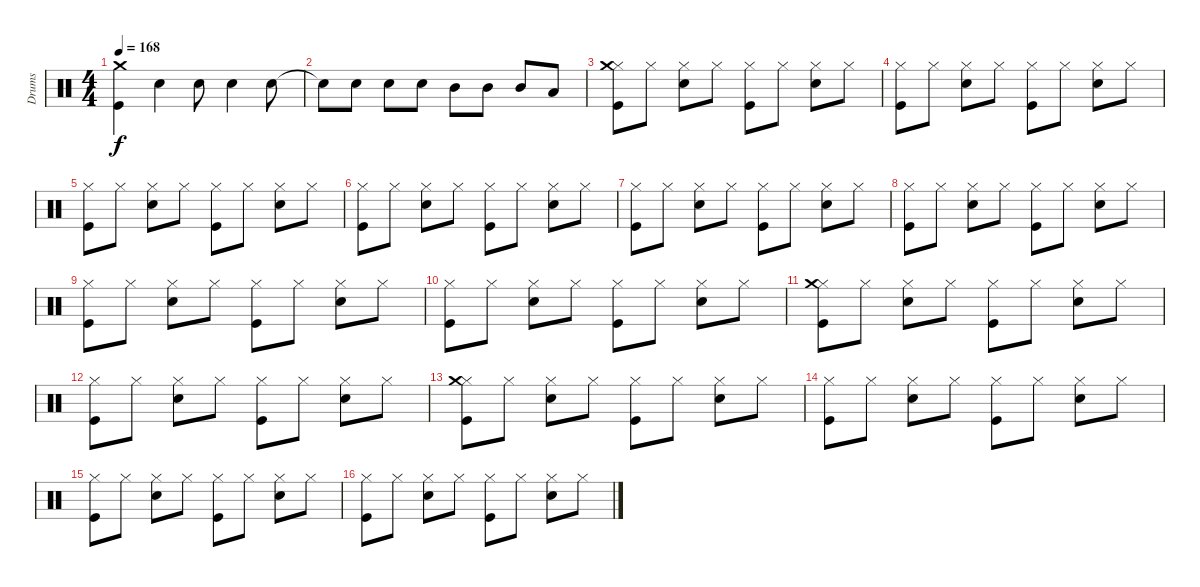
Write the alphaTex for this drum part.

\track ("Drums" "Drums") {instrument percussion}
\staff {score}
\articulation defaults
\ts (4 4)
\tempo 168
\clef neutral
\ks c
("Kick (hit)" "Crash medium (hit)").4{dy f} "Snare (hit) 2".4 "Snare (hit) 2".8 "Snare (hit) 2".4 "Snare (hit) 2".8 |
"Snare (hit)"{t}.8 "Snare (hit) 2".8 "Snare (hit) 2".8 "Snare (hit) 2".8 "Mid Tom (hit)".8 "Mid Tom (hit)".8 "Mid Tom (hit)".8 "Low Floor Tom (hit)".8 |
("Kick (hit)" "Hi-Hat (closed)" "Crash medium (hit)").8 "Hi-Hat (closed)".8 ("Snare (hit) 2" "Hi-Hat (closed)").8 "Hi-Hat (closed)".8 ("Kick (hit)" "Hi-Hat (closed)").8 "Hi-Hat (closed)".8 ("Snare (hit) 2" "Hi-Hat (closed)").8 "Hi-Hat (closed)".8 |
("Kick (hit)" "Hi-Hat (closed)").8 "Hi-Hat (closed)".8 ("Snare (hit) 2" "Hi-Hat (closed)").8 "Hi-Hat (closed)".8 ("Kick (hit)" "Hi-Hat (closed)").8 "Hi-Hat (closed)".8 ("Snare (hit) 2" "Hi-Hat (closed)").8 "Hi-Hat (closed)".8 |
("Kick (hit)" "Hi-Hat (closed)").8 "Hi-Hat (closed)".8 ("Snare (hit) 2" "Hi-Hat (closed)").8 "Hi-Hat (closed)".8 ("Kick (hit)" "Hi-Hat (closed)").8 "Hi-Hat (closed)".8 ("Snare (hit) 2" "Hi-Hat (closed)").8 "Hi-Hat (closed)".8 |
("Kick (hit)" "Hi-Hat (closed)").8 "Hi-Hat (closed)".8 ("Snare (hit) 2" "Hi-Hat (closed)").8 "Hi-Hat (closed)".8 ("Kick (hit)" "Hi-Hat (closed)").8 "Hi-Hat (closed)".8 ("Snare (hit) 2" "Hi-Hat (closed)").8 "Hi-Hat (closed)".8 |
("Kick (hit)" "Hi-Hat (closed)").8 "Hi-Hat (closed)".8 ("Snare (hit) 2" "Hi-Hat (closed)").8 "Hi-Hat (closed)".8 ("Kick (hit)" "Hi-Hat (closed)").8 "Hi-Hat (closed)".8 ("Snare (hit) 2" "Hi-Hat (closed)").8 "Hi-Hat (closed)".8 |
("Kick (hit)" "Hi-Hat (closed)").8 "Hi-Hat (closed)".8 ("Snare (hit) 2" "Hi-Hat (closed)").8 "Hi-Hat (closed)".8 ("Kick (hit)" "Hi-Hat (closed)").8 "Hi-Hat (closed)".8 ("Snare (hit) 2" "Hi-Hat (closed)").8 "Hi-Hat (closed)".8 |
("Kick (hit)" "Hi-Hat (closed)").8 "Hi-Hat (closed)".8 ("Snare (hit) 2" "Hi-Hat (closed)").8 "Hi-Hat (closed)".8 ("Kick (hit)" "Hi-Hat (closed)").8 "Hi-Hat (closed)".8 ("Snare (hit) 2" "Hi-Hat (closed)").8 "Hi-Hat (closed)".8 |
("Kick (hit)" "Hi-Hat (closed)").8 "Hi-Hat (closed)".8 ("Snare (hit) 2" "Hi-Hat (closed)").8 "Hi-Hat (closed)".8 ("Kick (hit)" "Hi-Hat (closed)").8 "Hi-Hat (closed)".8 ("Snare (hit) 2" "Hi-Hat (closed)").8 "Hi-Hat (closed)".8 |
("Kick (hit)" "Hi-Hat (closed)" "Crash medium (hit)").8 "Hi-Hat (closed)".8 ("Snare (hit) 2" "Hi-Hat (closed)").8 "Hi-Hat (closed)".8 ("Kick (hit)" "Hi-Hat (closed)").8 "Hi-Hat (closed)".8 ("Snare (hit) 2" "Hi-Hat (closed)").8 "Hi-Hat (closed)".8 |
("Kick (hit)" "Hi-Hat (closed)").8 "Hi-Hat (closed)".8 ("Snare (hit) 2" "Hi-Hat (closed)").8 "Hi-Hat (closed)".8 ("Kick (hit)" "Hi-Hat (closed)").8 "Hi-Hat (closed)".8 ("Snare (hit) 2" "Hi-Hat (closed)").8 "Hi-Hat (closed)".8 |
("Kick (hit)" "Hi-Hat (closed)" "Crash medium (hit)").8 "Hi-Hat (closed)".8 ("Snare (hit) 2" "Hi-Hat (closed)").8 "Hi-Hat (closed)".8 ("Kick (hit)" "Hi-Hat (closed)").8 "Hi-Hat (closed)".8 ("Snare (hit) 2" "Hi-Hat (closed)").8 "Hi-Hat (closed)".8 |
("Kick (hit)" "Hi-Hat (closed)").8 "Hi-Hat (closed)".8 ("Snare (hit) 2" "Hi-Hat (closed)").8 "Hi-Hat (closed)".8 ("Kick (hit)" "Hi-Hat (closed)").8 "Hi-Hat (closed)".8 ("Snare (hit) 2" "Hi-Hat (closed)").8 "Hi-Hat (closed)".8 |
("Kick (hit)" "Hi-Hat (closed)").8 "Hi-Hat (closed)".8 ("Snare (hit) 2" "Hi-Hat (closed)").8 "Hi-Hat (closed)".8 ("Kick (hit)" "Hi-Hat (closed)").8 "Hi-Hat (closed)".8 ("Snare (hit) 2" "Hi-Hat (closed)").8 "Hi-Hat (closed)".8 |
("Kick (hit)" "Hi-Hat (closed)").8 "Hi-Hat (closed)".8 ("Snare (hit) 2" "Hi-Hat (closed)").8 "Hi-Hat (closed)".8 ("Kick (hit)" "Hi-Hat (closed)").8 "Hi-Hat (closed)".8 ("Snare (hit) 2" "Hi-Hat (closed)").8 "Hi-Hat (closed)".8
